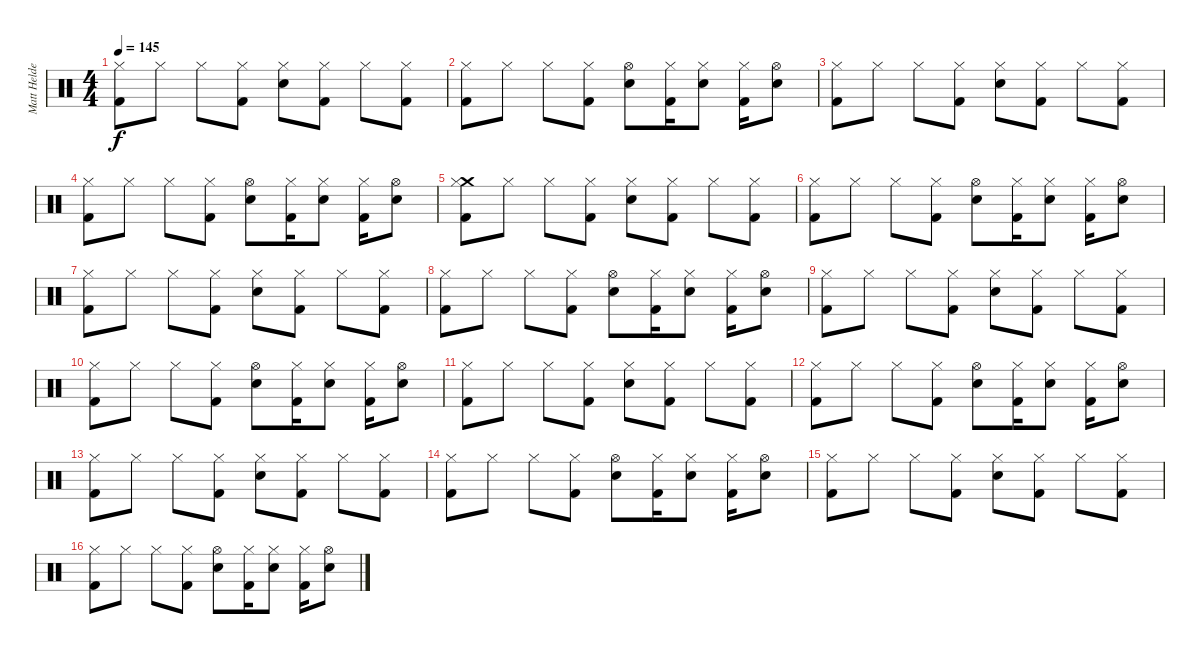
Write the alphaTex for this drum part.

\track ("Matt Helders" "Matt Helde") {instrument percussion}
\staff {score}
\articulation defaults
\ts (4 4)
\tempo 145
\clef neutral
\ks c
("Hi-Hat (closed)" "Kick (hit) 2").8{dy f} "Hi-Hat (closed)".8 "Hi-Hat (closed)".8 ("Hi-Hat (closed)" "Kick (hit) 2").8 ("Hi-Hat (closed)" "Snare (hit) 2").8 ("Hi-Hat (closed)" "Kick (hit) 2").8 "Hi-Hat (closed)".8 ("Hi-Hat (closed)" "Kick (hit) 2").8 |
("Hi-Hat (closed)" "Kick (hit) 2").8 "Hi-Hat (closed)".8 "Hi-Hat (closed)".8 ("Hi-Hat (closed)" "Kick (hit) 2").8 ("Hi-Hat (open)" "Snare (hit) 2").8 ("Hi-Hat (closed)" "Kick (hit) 2").16 ("Hi-Hat (closed)" "Snare (hit) 2").8 ("Hi-Hat (closed)" "Kick (hit) 2").16 ("Hi-Hat (open)" "Snare (hit) 2").8 |
("Hi-Hat (closed)" "Kick (hit) 2").8 "Hi-Hat (closed)".8 "Hi-Hat (closed)".8 ("Hi-Hat (closed)" "Kick (hit) 2").8 ("Hi-Hat (closed)" "Snare (hit) 2").8 ("Hi-Hat (closed)" "Kick (hit) 2").8 "Hi-Hat (closed)".8 ("Hi-Hat (closed)" "Kick (hit) 2").8 |
("Hi-Hat (closed)" "Kick (hit) 2").8 "Hi-Hat (closed)".8 "Hi-Hat (closed)".8 ("Hi-Hat (closed)" "Kick (hit) 2").8 ("Hi-Hat (open)" "Snare (hit) 2").8 ("Hi-Hat (closed)" "Kick (hit) 2").16 ("Hi-Hat (closed)" "Snare (hit) 2").8 ("Hi-Hat (closed)" "Kick (hit) 2").16 ("Hi-Hat (open)" "Snare (hit) 2").8 |
("Crash medium (hit)" "Hi-Hat (closed)" "Kick (hit) 2").8 "Hi-Hat (closed)".8 "Hi-Hat (closed)".8 ("Hi-Hat (closed)" "Kick (hit) 2").8 ("Hi-Hat (closed)" "Snare (hit) 2").8 ("Hi-Hat (closed)" "Kick (hit) 2").8 "Hi-Hat (closed)".8 ("Hi-Hat (closed)" "Kick (hit) 2").8 |
("Hi-Hat (closed)" "Kick (hit) 2").8 "Hi-Hat (closed)".8 "Hi-Hat (closed)".8 ("Hi-Hat (closed)" "Kick (hit) 2").8 ("Hi-Hat (open)" "Snare (hit) 2").8 ("Hi-Hat (closed)" "Kick (hit) 2").16 ("Hi-Hat (closed)" "Snare (hit) 2").8 ("Hi-Hat (closed)" "Kick (hit) 2").16 ("Hi-Hat (open)" "Snare (hit) 2").8 |
("Hi-Hat (closed)" "Kick (hit) 2").8 "Hi-Hat (closed)".8 "Hi-Hat (closed)".8 ("Hi-Hat (closed)" "Kick (hit) 2").8 ("Hi-Hat (closed)" "Snare (hit) 2").8 ("Hi-Hat (closed)" "Kick (hit) 2").8 "Hi-Hat (closed)".8 ("Hi-Hat (closed)" "Kick (hit) 2").8 |
("Hi-Hat (closed)" "Kick (hit) 2").8 "Hi-Hat (closed)".8 "Hi-Hat (closed)".8 ("Hi-Hat (closed)" "Kick (hit) 2").8 ("Hi-Hat (open)" "Snare (hit) 2").8 ("Hi-Hat (closed)" "Kick (hit) 2").16 ("Hi-Hat (closed)" "Snare (hit) 2").8 ("Hi-Hat (closed)" "Kick (hit) 2").16 ("Hi-Hat (open)" "Snare (hit) 2").8 |
("Hi-Hat (closed)" "Kick (hit) 2").8 "Hi-Hat (closed)".8 "Hi-Hat (closed)".8 ("Hi-Hat (closed)" "Kick (hit) 2").8 ("Hi-Hat (closed)" "Snare (hit) 2").8 ("Hi-Hat (closed)" "Kick (hit) 2").8 "Hi-Hat (closed)".8 ("Hi-Hat (closed)" "Kick (hit) 2").8 |
("Hi-Hat (closed)" "Kick (hit) 2").8 "Hi-Hat (closed)".8 "Hi-Hat (closed)".8 ("Hi-Hat (closed)" "Kick (hit) 2").8 ("Hi-Hat (open)" "Snare (hit) 2").8 ("Hi-Hat (closed)" "Kick (hit) 2").16 ("Hi-Hat (closed)" "Snare (hit) 2").8 ("Hi-Hat (closed)" "Kick (hit) 2").16 ("Hi-Hat (open)" "Snare (hit) 2").8 |
("Hi-Hat (closed)" "Kick (hit) 2").8 "Hi-Hat (closed)".8 "Hi-Hat (closed)".8 ("Hi-Hat (closed)" "Kick (hit) 2").8 ("Hi-Hat (closed)" "Snare (hit) 2").8 ("Hi-Hat (closed)" "Kick (hit) 2").8 "Hi-Hat (closed)".8 ("Hi-Hat (closed)" "Kick (hit) 2").8 |
("Hi-Hat (closed)" "Kick (hit) 2").8 "Hi-Hat (closed)".8 "Hi-Hat (closed)".8 ("Hi-Hat (closed)" "Kick (hit) 2").8 ("Hi-Hat (open)" "Snare (hit) 2").8 ("Hi-Hat (closed)" "Kick (hit) 2").16 ("Hi-Hat (closed)" "Snare (hit) 2").8 ("Hi-Hat (closed)" "Kick (hit) 2").16 ("Hi-Hat (open)" "Snare (hit) 2").8 |
("Hi-Hat (closed)" "Kick (hit) 2").8 "Hi-Hat (closed)".8 "Hi-Hat (closed)".8 ("Hi-Hat (closed)" "Kick (hit) 2").8 ("Hi-Hat (closed)" "Snare (hit) 2").8 ("Hi-Hat (closed)" "Kick (hit) 2").8 "Hi-Hat (closed)".8 ("Hi-Hat (closed)" "Kick (hit) 2").8 |
("Hi-Hat (closed)" "Kick (hit) 2").8 "Hi-Hat (closed)".8 "Hi-Hat (closed)".8 ("Hi-Hat (closed)" "Kick (hit) 2").8 ("Hi-Hat (open)" "Snare (hit) 2").8 ("Hi-Hat (closed)" "Kick (hit) 2").16 ("Hi-Hat (closed)" "Snare (hit) 2").8 ("Hi-Hat (closed)" "Kick (hit) 2").16 ("Hi-Hat (open)" "Snare (hit) 2").8 |
("Hi-Hat (closed)" "Kick (hit) 2").8 "Hi-Hat (closed)".8 "Hi-Hat (closed)".8 ("Hi-Hat (closed)" "Kick (hit) 2").8 ("Hi-Hat (closed)" "Snare (hit) 2").8 ("Hi-Hat (closed)" "Kick (hit) 2").8 "Hi-Hat (closed)".8 ("Hi-Hat (closed)" "Kick (hit) 2").8 |
("Hi-Hat (closed)" "Kick (hit) 2").8 "Hi-Hat (closed)".8 "Hi-Hat (closed)".8 ("Hi-Hat (closed)" "Kick (hit) 2").8 ("Hi-Hat (open)" "Snare (hit) 2").8 ("Hi-Hat (closed)" "Kick (hit) 2").16 ("Hi-Hat (closed)" "Snare (hit) 2").8 ("Hi-Hat (closed)" "Kick (hit) 2").16 ("Hi-Hat (open)" "Snare (hit) 2").8
